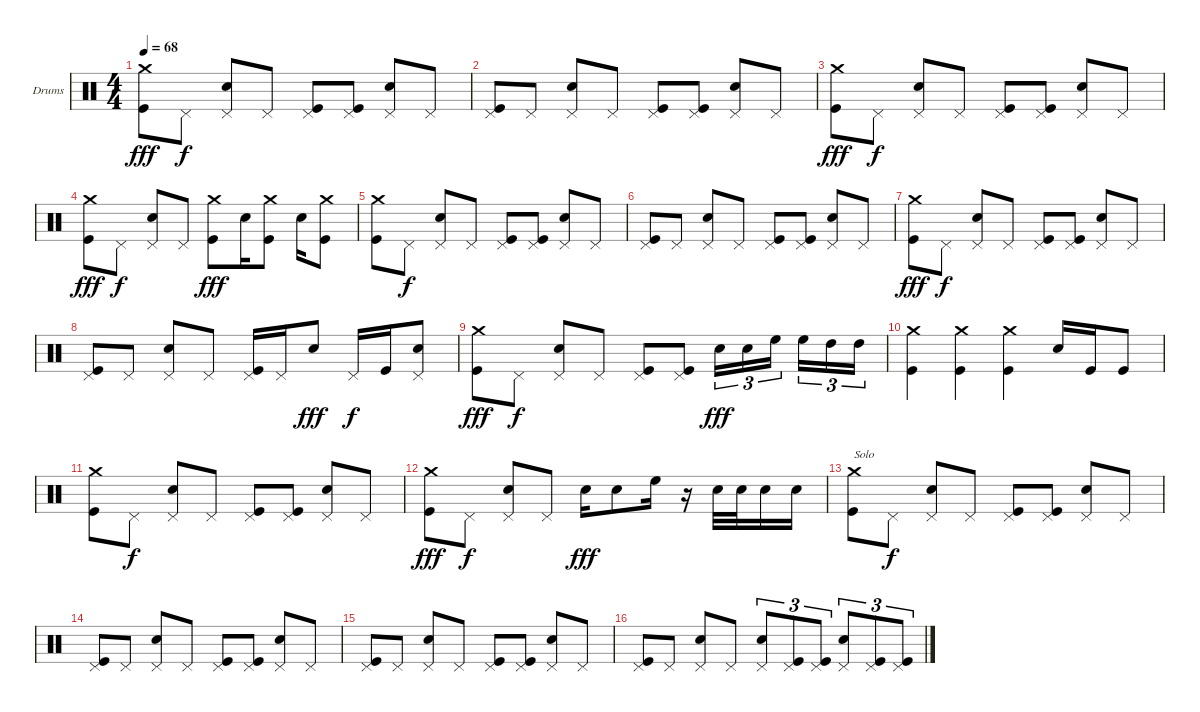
\bracketExtendMode groupsimilarinstruments
\firstSystemTrackNameOrientation horizontal
\otherSystemsTrackNameOrientation horizontal
\track ("Drumkit" "Drums") {instrument percussion}
\staff {score}
\articulation defaults
\ts (4 4)
\tempo 68
\clef neutral
\ks c
("Crash medium (hit)" "Kick (hit)").8{dy fff} "Pedal Hi-Hat (hit)".8{dy f} ("Pedal Hi-Hat (hit)" "Snare (hit) 2").8 "Pedal Hi-Hat (hit)".8 ("Pedal Hi-Hat (hit)" "Kick (hit)").8 ("Pedal Hi-Hat (hit)" "Kick (hit)").8 ("Pedal Hi-Hat (hit)" "Snare (hit) 2").8 "Pedal Hi-Hat (hit)".8 |
("Pedal Hi-Hat (hit)" "Kick (hit)").8 "Pedal Hi-Hat (hit)".8 ("Pedal Hi-Hat (hit)" "Snare (hit) 2").8 "Pedal Hi-Hat (hit)".8 ("Pedal Hi-Hat (hit)" "Kick (hit)").8 ("Pedal Hi-Hat (hit)" "Kick (hit)").8 ("Pedal Hi-Hat (hit)" "Snare (hit) 2").8 "Pedal Hi-Hat (hit)".8 |
("Crash medium (hit)" "Kick (hit)").8{dy fff} "Pedal Hi-Hat (hit)".8{dy f} ("Pedal Hi-Hat (hit)" "Snare (hit) 2").8 "Pedal Hi-Hat (hit)".8 ("Pedal Hi-Hat (hit)" "Kick (hit)").8 ("Pedal Hi-Hat (hit)" "Kick (hit)").8 ("Pedal Hi-Hat (hit)" "Snare (hit) 2").8 "Pedal Hi-Hat (hit)".8 |
("Crash medium (hit)" "Kick (hit)").8{dy fff} "Pedal Hi-Hat (hit)".8{dy f} ("Pedal Hi-Hat (hit)" "Snare (hit) 2").8 "Pedal Hi-Hat (hit)".8 ("Crash medium (hit)" "Kick (hit)").8{dy fff} "Snare (hit) 2".16 ("Crash medium (hit)" "Kick (hit)").8 "Snare (hit) 2".16 ("Crash medium (hit)" "Kick (hit)").8 |
("Crash medium (hit)" "Kick (hit)").8 "Pedal Hi-Hat (hit)".8{dy f} ("Pedal Hi-Hat (hit)" "Snare (hit) 2").8 "Pedal Hi-Hat (hit)".8 ("Pedal Hi-Hat (hit)" "Kick (hit)").8 ("Pedal Hi-Hat (hit)" "Kick (hit)").8 ("Pedal Hi-Hat (hit)" "Snare (hit) 2").8 "Pedal Hi-Hat (hit)".8 |
("Pedal Hi-Hat (hit)" "Kick (hit)").8 "Pedal Hi-Hat (hit)".8 ("Pedal Hi-Hat (hit)" "Snare (hit) 2").8 "Pedal Hi-Hat (hit)".8 ("Pedal Hi-Hat (hit)" "Kick (hit)").8 ("Pedal Hi-Hat (hit)" "Kick (hit)").8 ("Pedal Hi-Hat (hit)" "Snare (hit) 2").8 "Pedal Hi-Hat (hit)".8 |
("Crash medium (hit)" "Kick (hit)").8{dy fff} "Pedal Hi-Hat (hit)".8{dy f} ("Pedal Hi-Hat (hit)" "Snare (hit) 2").8 "Pedal Hi-Hat (hit)".8 ("Pedal Hi-Hat (hit)" "Kick (hit)").8 ("Pedal Hi-Hat (hit)" "Kick (hit)").8 ("Pedal Hi-Hat (hit)" "Snare (hit) 2").8 "Pedal Hi-Hat (hit)".8 |
("Pedal Hi-Hat (hit)" "Kick (hit)").8 "Pedal Hi-Hat (hit)".8 ("Pedal Hi-Hat (hit)" "Snare (hit) 2").8 "Pedal Hi-Hat (hit)".8 ("Pedal Hi-Hat (hit)" "Kick (hit)").16 "Pedal Hi-Hat (hit)".16 "Snare (hit) 2".8{dy fff} "Pedal Hi-Hat (hit)".16{dy f} "Kick (hit)".16 ("Pedal Hi-Hat (hit)" "Snare (hit) 2").8 |
("Crash medium (hit)" "Kick (hit)").8{dy fff} "Pedal Hi-Hat (hit)".8{dy f} ("Pedal Hi-Hat (hit)" "Snare (hit) 2").8 "Pedal Hi-Hat (hit)".8 ("Pedal Hi-Hat (hit)" "Kick (hit)").8 ("Pedal Hi-Hat (hit)" "Kick (hit)").8 "Snare (hit) 2".16{tu (3 2) dy fff} "Snare (hit) 2".16{tu (3 2)} "High Floor Tom (hit)".16{tu (3 2)} "High Floor Tom (hit)".16{tu (3 2)} "High Tom (hit)".16{tu (3 2)} "High Tom (hit)".16{tu (3 2)} |
("Crash medium (hit)" "Kick (hit)").4 ("Crash medium (hit)" "Kick (hit)").4 ("Crash medium (hit)" "Kick (hit)").4 "Snare (hit) 2".16 "Kick (hit)".16 "Kick (hit)".8 |
("Crash medium (hit)" "Kick (hit)").8 "Pedal Hi-Hat (hit)".8{dy f} ("Pedal Hi-Hat (hit)" "Snare (hit) 2").8 "Pedal Hi-Hat (hit)".8 ("Pedal Hi-Hat (hit)" "Kick (hit)").8 ("Pedal Hi-Hat (hit)" "Kick (hit)").8 ("Pedal Hi-Hat (hit)" "Snare (hit) 2").8 "Pedal Hi-Hat (hit)".8 |
("Crash medium (hit)" "Kick (hit)").8{dy fff} "Pedal Hi-Hat (hit)".8{dy f} ("Pedal Hi-Hat (hit)" "Snare (hit) 2").8 "Pedal Hi-Hat (hit)".8 "Snare (hit) 2".16{dy fff} "Snare (hit) 2".8 "High Floor Tom (hit)".16 r.16 "Snare (hit) 2".32 "Snare (hit) 2".32 "Snare (hit) 2".16 "Snare (hit) 2".16 |
("Crash medium (hit)" "Kick (hit)").8{txt "Solo"} "Pedal Hi-Hat (hit)".8{dy f} ("Pedal Hi-Hat (hit)" "Snare (hit) 2").8 "Pedal Hi-Hat (hit)".8 ("Pedal Hi-Hat (hit)" "Kick (hit)").8 ("Pedal Hi-Hat (hit)" "Kick (hit)").8 ("Pedal Hi-Hat (hit)" "Snare (hit) 2").8 "Pedal Hi-Hat (hit)".8 |
("Pedal Hi-Hat (hit)" "Kick (hit)").8 "Pedal Hi-Hat (hit)".8 ("Pedal Hi-Hat (hit)" "Snare (hit) 2").8 "Pedal Hi-Hat (hit)".8 ("Pedal Hi-Hat (hit)" "Kick (hit)").8 ("Pedal Hi-Hat (hit)" "Kick (hit)").8 ("Pedal Hi-Hat (hit)" "Snare (hit) 2").8 "Pedal Hi-Hat (hit)".8 |
("Pedal Hi-Hat (hit)" "Kick (hit)").8 "Pedal Hi-Hat (hit)".8 ("Pedal Hi-Hat (hit)" "Snare (hit) 2").8 "Pedal Hi-Hat (hit)".8 ("Pedal Hi-Hat (hit)" "Kick (hit)").8 ("Pedal Hi-Hat (hit)" "Kick (hit)").8 ("Pedal Hi-Hat (hit)" "Snare (hit) 2").8 "Pedal Hi-Hat (hit)".8 |
("Pedal Hi-Hat (hit)" "Kick (hit)").8 "Pedal Hi-Hat (hit)".8 ("Pedal Hi-Hat (hit)" "Snare (hit) 2").8 "Pedal Hi-Hat (hit)".8 ("Pedal Hi-Hat (hit)" "Snare (hit) 2").8{tu (3 2)} ("Pedal Hi-Hat (hit)" "Kick (hit)").8{tu (3 2)} ("Pedal Hi-Hat (hit)" "Kick (hit)").8{tu (3 2)} ("Pedal Hi-Hat (hit)" "Snare (hit) 2").8{tu (3 2)} ("Pedal Hi-Hat (hit)" "Kick (hit)").8{tu (3 2)} ("Pedal Hi-Hat (hit)" "Kick (hit)").8{tu (3 2)}
